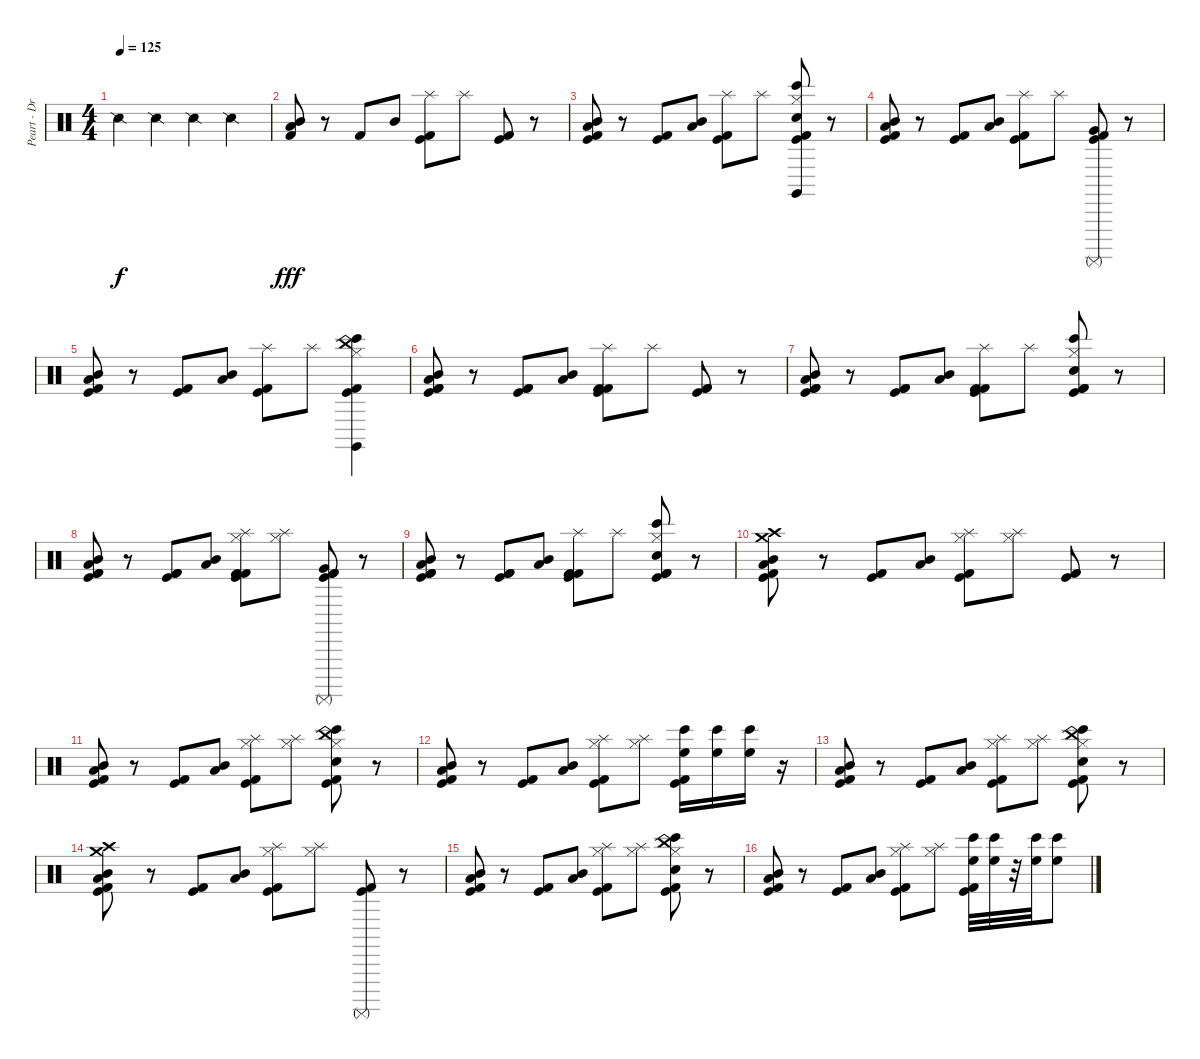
\track ("Peart - Drums" "Peart - Dr") {instrument percussion}
\staff {score}
\articulation defaults
\ts (4 4)
\tempo 125
\clef neutral
\ks c "Snare (side stick) 2".4{dy f} "Snare (side stick) 2".4 "Snare (side stick) 2".4 "Snare (side stick) 2".4
|
("Low Tom (hit)" "Kick (hit) 2" "Mid Tom (hit)").8{dy fff} r.8 "Kick (hit) 2".8 "Mid Tom (hit)".8 ("Kick (hit) 2" "Splash (hit)" "Kick (hit)").8 "Splash (hit)".8 ("Kick (hit) 2" "Kick (hit)").8 r.8 |
("Kick (hit) 2" "Low Tom (hit)" "Kick (hit)" "Mid Tom (hit)").8 r.8 ("Kick (hit) 2" "Kick (hit)").8 ("Low Tom (hit)" "Mid Tom (hit)").8 ("Kick (hit) 2" "Splash (hit)" "Kick (hit)").8 "Splash (hit)".8 ("Kick (hit) 2" "Kick (hit)" "Bongo High (hit)" "Claves (hit)" "Hi-Hat (closed)" "Hand Clap (hit)").8 r.8 |
("Kick (hit) 2" "Low Tom (hit)" "Kick (hit)" "Mid Tom (hit)").8 r.8 ("Kick (hit) 2" "Kick (hit)").8 ("Low Tom (hit)" "Mid Tom (hit)").8 ("Kick (hit) 2" "Splash (hit)" "Kick (hit)").8 "Splash (hit)".8 ("Kick (hit) 2" "Very Low Tom (hit)" "Surdo (mute)" "Kick (hit)").8 r.8 |
("Kick (hit) 2" "Low Tom (hit)" "Kick (hit)" "Mid Tom (hit)").8 r.8 ("Kick (hit) 2" "Kick (hit)").8 ("Low Tom (hit)" "Mid Tom (hit)").8 ("Kick (hit) 2" "Splash (hit)" "Kick (hit)").8 "Splash (hit)".8 ("Kick (hit) 2" "Claves (hit)" "Bongo High (hit)" "Hi-Hat (closed)" "Kick (hit)" "China (hit)").4 |
("Kick (hit) 2" "Kick (hit) 2" "Low Tom (hit)" "Kick (hit)" "Mid Tom (hit)").8 r.8 ("Kick (hit) 2" "Kick (hit) 2" "Kick (hit)").8 ("Low Tom (hit)" "Mid Tom (hit)").8 ("Kick (hit) 2" "Kick (hit) 2" "Splash (hit)" "Kick (hit)").8 "Splash (hit)".8 ("Kick (hit) 2" "Kick (hit) 2" "Kick (hit)").8 r.8 |
("Kick (hit) 2" "Kick (hit) 2" "Low Tom (hit)" "Kick (hit)" "Mid Tom (hit)").8 r.8 ("Kick (hit) 2" "Kick (hit) 2" "Kick (hit)").8 ("Low Tom (hit)" "Mid Tom (hit)").8 ("Kick (hit) 2" "Kick (hit) 2" "Splash (hit)" "Kick (hit)").8 "Splash (hit)".8 ("Kick (hit) 2" "Kick (hit) 2" "Kick (hit)" "Bongo High (hit)" "Hi-Hat (closed)" "Hand Clap (hit)").8 r.8 |
("Kick (hit) 2" "Kick (hit) 2" "Low Tom (hit)" "Kick (hit)" "Mid Tom (hit)").8 r.8 ("Kick (hit) 2" "Kick (hit) 2" "Kick (hit)").8 ("Low Tom (hit)" "Mid Tom (hit)").8 ("Kick (hit) 2" "Kick (hit) 2" "Splash (hit)" "Kick (hit)" "Hi-Hat (closed)").8 ("Splash (hit)" "Hi-Hat (closed)").8 ("Kick (hit) 2" "Kick (hit) 2" "Very Low Tom (hit)" "Kick (hit)" "Surdo (mute)").8 r.8 |
("Kick (hit) 2" "Kick (hit) 2" "Low Tom (hit)" "Kick (hit)" "Mid Tom (hit)").8 r.8 ("Kick (hit) 2" "Kick (hit) 2" "Kick (hit)").8 ("Low Tom (hit)" "Mid Tom (hit)").8 ("Kick (hit) 2" "Kick (hit) 2" "Splash (hit)" "Kick (hit)").8 "Splash (hit)".8 ("Kick (hit) 2" "Kick (hit) 2" "Bongo High (hit)" "Electric Snare (hit)" "Hi-Hat (closed)" "Kick (hit)").8 r.8 |
("Kick (hit) 2" "Low Tom (hit)" "Kick (hit)" "Crash medium (hit)" "Crash high (hit)" "Mid Tom (hit)").8 r.8 ("Kick (hit) 2" "Kick (hit)").8 ("Low Tom (hit)" "Mid Tom (hit)").8 ("Kick (hit) 2" "Splash (hit)" "Kick (hit)" "Hi-Hat (closed)").8 ("Splash (hit)" "Hi-Hat (closed)").8 ("Kick (hit) 2" "Kick (hit)").8 r.8 |
("Kick (hit) 2" "Low Tom (hit)" "Kick (hit)" "Mid Tom (hit)").8 r.8 ("Kick (hit) 2" "Kick (hit)").8 ("Low Tom (hit)" "Mid Tom (hit)").8 ("Kick (hit) 2" "Splash (hit)" "Kick (hit)" "Hi-Hat (closed)").8 ("Splash (hit)" "Hi-Hat (closed)").8 ("Kick (hit) 2" "Kick (hit)" "Bongo High (hit)" "Hi-Hat (closed)" "Hand Clap (hit)" "China (hit)").8 r.8 |
("Kick (hit) 2" "Low Tom (hit)" "Kick (hit)" "Mid Tom (hit)").8 r.8 ("Kick (hit) 2" "Kick (hit)").8 ("Low Tom (hit)" "Mid Tom (hit)").8 ("Kick (hit) 2" "Splash (hit)" "Kick (hit)" "Hi-Hat (closed)").8 ("Splash (hit)" "Hi-Hat (closed)").8 ("Kick (hit) 2" "Kick (hit)" "High Floor Tom (hit)" "Bongo High (hit)").16 ("High Floor Tom (hit)" "Bongo High (hit)").16 ("High Floor Tom (hit)" "Bongo High (hit)").16 r.16 |
("Kick (hit) 2" "Low Tom (hit)" "Kick (hit)" "Mid Tom (hit)").8 r.8 ("Kick (hit) 2" "Kick (hit)").8 ("Low Tom (hit)" "Mid Tom (hit)").8 ("Kick (hit) 2" "Splash (hit)" "Kick (hit)" "Hi-Hat (closed)").8 ("Splash (hit)" "Hi-Hat (closed)").8 ("Kick (hit) 2" "Kick (hit)" "Bongo High (hit)" "Hi-Hat (closed)" "Hand Clap (hit)" "China (hit)").8 r.8 |
("Crash high (hit)" "Crash medium (hit)" "Kick (hit)" "Low Tom (hit)" "Kick (hit) 2" "Mid Tom (hit)").8 r.8 ("Kick (hit) 2" "Kick (hit)").8 ("Low Tom (hit)" "Mid Tom (hit)").8 ("Kick (hit) 2" "Splash (hit)" "Kick (hit)" "Hi-Hat (closed)").8 ("Splash (hit)" "Hi-Hat (closed)").8 ("Kick (hit) 2" "Kick (hit)" "Surdo (mute)").8 r.8 |
("Kick (hit) 2" "Low Tom (hit)" "Kick (hit)" "Mid Tom (hit)").8 r.8 ("Kick (hit) 2" "Kick (hit)").8 ("Low Tom (hit)" "Mid Tom (hit)").8 ("Kick (hit) 2" "Splash (hit)" "Kick (hit)" "Hi-Hat (closed)").8 ("Splash (hit)" "Hi-Hat (closed)").8 ("Kick (hit) 2" "Kick (hit)" "Hi-Hat (closed)" "Hand Clap (hit)" "China (hit)" "Bongo High (hit)").8 r.8 |
("Kick (hit) 2" "Low Tom (hit)" "Kick (hit)" "Mid Tom (hit)").8 r.8 ("Kick (hit) 2" "Kick (hit)").8 ("Low Tom (hit)" "Mid Tom (hit)").8 ("Kick (hit) 2" "Splash (hit)" "Kick (hit)" "Hi-Hat (closed)").8 ("Splash (hit)" "Hi-Hat (closed)").8 ("Kick (hit) 2" "Kick (hit)" "Bongo High (hit)" "High Floor Tom (hit)").32 ("Bongo High (hit)" "High Floor Tom (hit)").32 r.32 ("Bongo High (hit)" "High Floor Tom (hit)").32 ("Bongo High (hit)" "High Floor Tom (hit)").8
